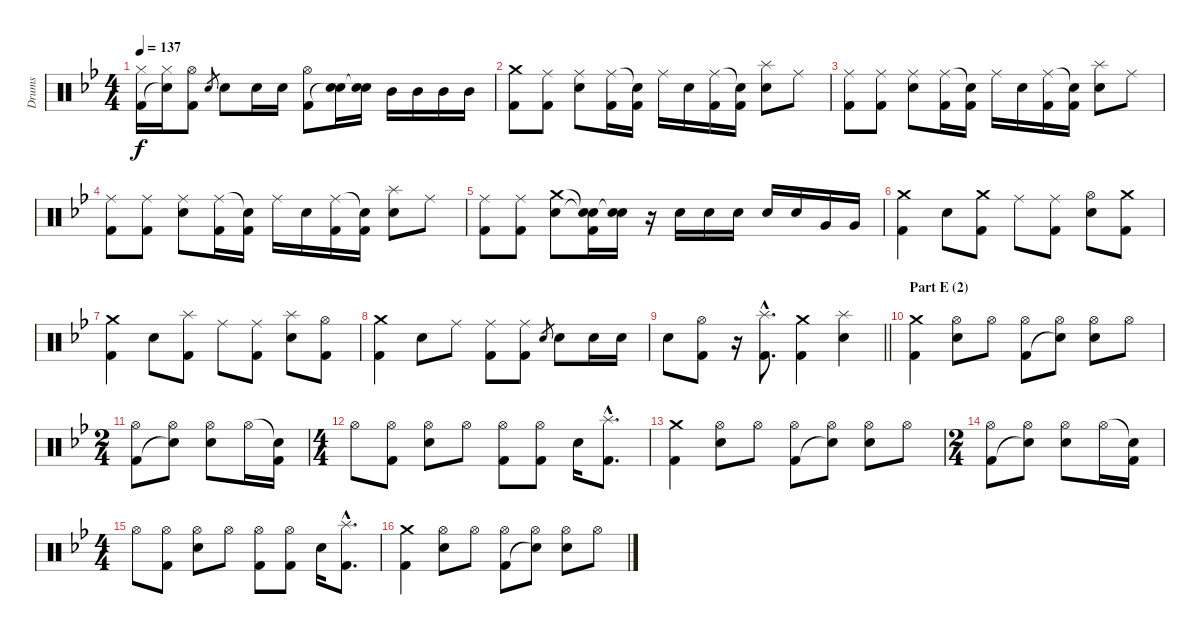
\track ("Drums" "Drums") {instrument percussion}
\staff {score}
\articulation defaults
\ts (4 4)
\tempo 137
\clef neutral
\ks bb
("Hi-Hat (closed)" "Kick (hit) 2").16{dy f} ("Hi-Hat (closed)" "Snare (hit)"{t}).16 ("Hi-Hat (open)" "Kick (hit) 2").8 "Electric Snare (hit)".8{gr} "Electric Snare (hit)".8 "Electric Snare (hit)".16 "Electric Snare (hit)".16 ("Hi-Hat (open)" "Kick (hit) 2").8 ("Electric Snare (hit)" "Snare (hit)"{t}).16 ("Electric Snare (hit)" "Snare (hit)"{t}).16 "Mid Tom (hit)".16 "Mid Tom (hit)".16 "Mid Tom (hit)".16 "Mid Tom (hit)".16 |
("Crash medium (hit)" "Kick (hit) 2").8 ("Ride (middle)" "Kick (hit) 2").8 ("Ride (middle)" "Electric Snare (hit)").8 ("Ride (middle)" "Kick (hit) 2").16 ("Snare (hit)"{t} "Kick (hit) 2").16 "Ride (middle)".16 "Electric Snare (hit)".16 ("Ride (middle)" "Kick (hit) 2").16 ("Snare (hit)"{t} "Kick (hit) 2").16 ("Splash (hit)" "Electric Snare (hit)").8 "Ride (middle)".8 |
("Ride (middle)" "Kick (hit) 2").8 ("Ride (middle)" "Kick (hit) 2").8 ("Ride (middle)" "Electric Snare (hit)").8 ("Ride (middle)" "Kick (hit) 2").16 ("Snare (hit)"{t} "Kick (hit) 2").16 "Ride (middle)".16 "Electric Snare (hit)".16 ("Ride (middle)" "Kick (hit) 2").16 ("Snare (hit)"{t} "Kick (hit) 2").16 ("Splash (hit)" "Electric Snare (hit)").8 "Ride (middle)".8 |
("Ride (middle)" "Kick (hit) 2").8 ("Ride (middle)" "Kick (hit) 2").8 ("Ride (middle)" "Electric Snare (hit)").8 ("Ride (middle)" "Kick (hit) 2").16 ("Snare (hit)"{t} "Kick (hit) 2").16 "Ride (middle)".16 "Electric Snare (hit)".16 ("Ride (middle)" "Kick (hit) 2").16 ("Snare (hit)"{t} "Kick (hit) 2").16 ("Splash (hit)" "Electric Snare (hit)").8 "Ride (middle)".8 |
("Ride (middle)" "Kick (hit) 2").8 ("Ride (middle)" "Kick (hit) 2").8 ("Crash medium (hit)" "Electric Snare (hit)").8 ("Snare (hit)"{t} "Snare (hit)"{t} "Kick (hit) 2").16 ("Electric Snare (hit)" "Snare (hit)"{t}).16 r.16 "Electric Snare (hit)".16 "Electric Snare (hit)".16 "Electric Snare (hit)".16 "Electric Snare (hit)".16 "Electric Snare (hit)".16 "Very Low Tom (hit)".16 "Very Low Tom (hit)".16 |
("Crash medium (hit)" "Kick (hit) 2").4 "Electric Snare (hit)".8 ("Crash medium (hit)" "Kick (hit) 2").8 "Ride (middle)".8 ("Ride (middle)" "Kick (hit) 2").8 ("Hi-Hat (open)" "Electric Snare (hit)").8 ("Crash medium (hit)" "Kick (hit) 2").8 |
("Crash medium (hit)" "Kick (hit) 2").4 "Electric Snare (hit)".8 ("Splash (hit)" "Kick (hit) 2").8 "Ride (middle)".8 ("Ride (middle)" "Kick (hit) 2").8 ("Splash (hit)" "Electric Snare (hit)").8 ("Hi-Hat (open)" "Kick (hit) 2").8 |
("Crash medium (hit)" "Kick (hit) 2").4 "Electric Snare (hit)".8 "Ride (middle)".8 ("Ride (middle)" "Kick (hit) 2").8 ("Ride (middle)" "Kick (hit) 2").8 "Electric Snare (hit)".8{gr} "Electric Snare (hit)".8 "Electric Snare (hit)".16 "Electric Snare (hit)".16 |
\barLineRight lightlight "Electric Snare (hit)".8
("Hi-Hat (open)" "Kick (hit) 2").8 r.16 ("Splash (hit)"{hac} "Kick (hit) 2"{hac}).8{d} ("Crash medium (hit)" "Kick (hit) 2").4 ("Splash (hit)" "Electric Snare (hit)").4 |
\section ("" "Part E (2)")
("Crash medium (hit)" "Kick (hit) 2").4 ("Hi-Hat (open)" "Electric Snare (hit)").8 "Hi-Hat (open)".8 ("Hi-Hat (open)" "Kick (hit) 2").8 ("Hi-Hat (open)" "Snare (hit)"{t}).8 ("Hi-Hat (open)" "Electric Snare (hit)").8 "Hi-Hat (open)".8 |
\ts (2 4)
("Hi-Hat (open)" "Kick (hit) 2").8 ("Hi-Hat (open)" "Snare (hit)"{t}).8 ("Hi-Hat (open)" "Electric Snare (hit)").8 "Hi-Hat (open)".16 ("Snare (hit)"{t} "Kick (hit) 2").16 |
\ts (4 4)
"Hi-Hat (open)".8 ("Hi-Hat (open)" "Kick (hit) 2").8 ("Hi-Hat (open)" "Electric Snare (hit)").8 "Hi-Hat (open)".8 ("Hi-Hat (open)" "Kick (hit) 2").8 ("Hi-Hat (open)" "Kick (hit) 2").8 "Electric Snare (hit)".16 ("Splash (hit)"{hac} "Kick (hit) 2"{hac}).8{d} |
("Crash medium (hit)" "Kick (hit) 2").4 ("Hi-Hat (open)" "Electric Snare (hit)").8 "Hi-Hat (open)".8 ("Hi-Hat (open)" "Kick (hit) 2").8 ("Hi-Hat (open)" "Snare (hit)"{t}).8 ("Hi-Hat (open)" "Electric Snare (hit)").8 "Hi-Hat (open)".8 |
\ts (2 4)
("Hi-Hat (open)" "Kick (hit) 2").8 ("Hi-Hat (open)" "Snare (hit)"{t}).8 ("Hi-Hat (open)" "Electric Snare (hit)").8 "Hi-Hat (open)".16 ("Snare (hit)"{t} "Kick (hit) 2").16 |
\ts (4 4)
"Hi-Hat (open)".8 ("Hi-Hat (open)" "Kick (hit) 2").8 ("Hi-Hat (open)" "Electric Snare (hit)").8 "Hi-Hat (open)".8 ("Hi-Hat (open)" "Kick (hit) 2").8 ("Hi-Hat (open)" "Kick (hit) 2").8 "Electric Snare (hit)".16 ("Splash (hit)"{hac} "Kick (hit) 2"{hac}).8{d} |
("Crash medium (hit)" "Kick (hit) 2").4 ("Hi-Hat (open)" "Electric Snare (hit)").8 "Hi-Hat (open)".8 ("Hi-Hat (open)" "Kick (hit) 2").8 ("Hi-Hat (open)" "Snare (hit)"{t}).8 ("Hi-Hat (open)" "Electric Snare (hit)").8 "Hi-Hat (open)".8
